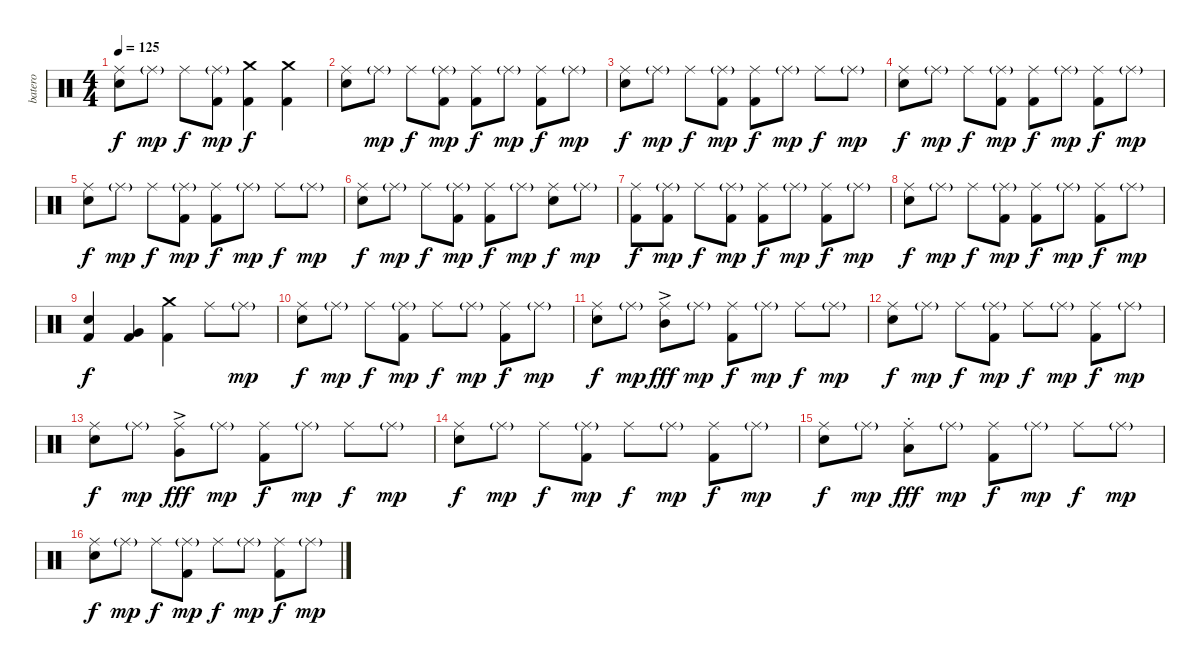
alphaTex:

\track ("batero" "batero") {instrument percussion}
\staff {score}
\articulation defaults
\ts (4 4)
\tempo 125
\clef neutral
\ks c
("Ride (middle)" "Snare (hit) 2").8{dy f} "Ride (middle)"{g}.8{dy mp} "Ride (middle)".8{dy f} ("Ride (middle)"{g} "Kick (hit) 2").8{dy mp} ("Crash medium (hit)" "Kick (hit) 2").4{dy f} ("Crash medium (hit)" "Kick (hit) 2").4 |
("Ride (middle)" "Snare (hit) 2").8 "Ride (middle)"{g}.8{dy mp} "Ride (middle)".8{dy f} ("Ride (middle)"{g} "Kick (hit) 2").8{dy mp} ("Ride (middle)" "Kick (hit) 2").8{dy f} "Ride (middle)"{g}.8{dy mp} ("Ride (middle)" "Kick (hit) 2").8{dy f} "Ride (middle)"{g}.8{dy mp} |
("Ride (middle)" "Snare (hit) 2").8{dy f} "Ride (middle)"{g}.8{dy mp} "Ride (middle)".8{dy f} ("Ride (middle)"{g} "Kick (hit) 2").8{dy mp} ("Ride (middle)" "Kick (hit) 2").8{dy f} "Ride (middle)"{g}.8{dy mp} "Ride (middle)".8{dy f} "Ride (middle)"{g}.8{dy mp} |
("Ride (middle)" "Snare (hit) 2").8{dy f} "Ride (middle)"{g}.8{dy mp} "Ride (middle)".8{dy f} ("Ride (middle)"{g} "Kick (hit) 2").8{dy mp} ("Ride (middle)" "Kick (hit) 2").8{dy f} "Ride (middle)"{g}.8{dy mp} ("Ride (middle)" "Kick (hit) 2").8{dy f} "Ride (middle)"{g}.8{dy mp} |
("Ride (middle)" "Snare (hit) 2").8{dy f} "Ride (middle)"{g}.8{dy mp} "Ride (middle)".8{dy f} ("Ride (middle)"{g} "Kick (hit) 2").8{dy mp} ("Ride (middle)" "Kick (hit) 2").8{dy f} "Ride (middle)"{g}.8{dy mp} "Ride (middle)".8{dy f} "Ride (middle)"{g}.8{dy mp} |
("Ride (middle)" "Snare (hit) 2").8{dy f} "Ride (middle)"{g}.8{dy mp} "Ride (middle)".8{dy f} ("Ride (middle)"{g} "Kick (hit) 2").8{dy mp} ("Ride (middle)" "Kick (hit) 2").8{dy f} "Ride (middle)"{g}.8{dy mp} ("Ride (middle)" "Snare (hit) 2").8{dy f} "Ride (middle)"{g}.8{dy mp} |
("Ride (middle)" "Kick (hit) 2").8{dy f} ("Ride (middle)"{g} "Kick (hit) 2").8{dy mp} "Ride (middle)".8{dy f} ("Ride (middle)"{g} "Kick (hit) 2").8{dy mp} ("Ride (middle)" "Kick (hit) 2").8{dy f} "Ride (middle)"{g}.8{dy mp} ("Ride (middle)" "Kick (hit) 2").8{dy f} "Ride (middle)"{g}.8{dy mp} |
("Ride (middle)" "Snare (hit) 2").8{dy f} "Ride (middle)"{g}.8{dy mp} "Ride (middle)".8{dy f} ("Ride (middle)"{g} "Kick (hit) 2").8{dy mp} ("Ride (middle)" "Kick (hit) 2").8{dy f} "Ride (middle)"{g}.8{dy mp} ("Ride (middle)" "Kick (hit) 2").8{dy f} "Ride (middle)"{g}.8{dy mp} |
("Snare (hit) 2" "Kick (hit) 2").4{dy f} ("Very Low Tom (hit)" "Kick (hit) 2").4 ("Crash medium (hit)" "Kick (hit) 2").4 "Ride (middle)".8 "Ride (middle)"{g}.8{dy mp} |
("Ride (middle)" "Snare (hit) 2").8{dy f} "Ride (middle)"{g}.8{dy mp} "Ride (middle)".8{dy f} ("Ride (middle)"{g} "Kick (hit) 2").8{dy mp} "Ride (middle)".8{dy f} "Ride (middle)"{g}.8{dy mp} ("Ride (middle)" "Kick (hit) 2").8{dy f} "Ride (middle)"{g}.8{dy mp} |
("Ride (middle)" "Snare (hit) 2").8{dy f} "Ride (middle)"{g}.8{dy mp} ("Ride (middle)" "Mid Tom (hit)"{ac}).8{dy fff} "Ride (middle)"{g}.8{dy mp} ("Ride (middle)" "Kick (hit) 2").8{dy f} "Ride (middle)"{g}.8{dy mp} "Ride (middle)".8{dy f} "Ride (middle)"{g}.8{dy mp} |
("Ride (middle)" "Snare (hit) 2").8{dy f} "Ride (middle)"{g}.8{dy mp} "Ride (middle)".8{dy f} ("Ride (middle)"{g} "Kick (hit) 2").8{dy mp} "Ride (middle)".8{dy f} "Ride (middle)"{g}.8{dy mp} ("Ride (middle)" "Kick (hit) 2").8{dy f} "Ride (middle)"{g}.8{dy mp} |
("Ride (middle)" "Snare (hit) 2").8{dy f} "Ride (middle)"{g}.8{dy mp} ("Ride (middle)" "Very Low Tom (hit)"{ac}).8{dy fff} "Ride (middle)"{g}.8{dy mp} ("Ride (middle)" "Kick (hit) 2").8{dy f} "Ride (middle)"{g}.8{dy mp} "Ride (middle)".8{dy f} "Ride (middle)"{g}.8{dy mp} |
("Ride (middle)" "Snare (hit) 2").8{dy f} "Ride (middle)"{g}.8{dy mp} "Ride (middle)".8{dy f} ("Ride (middle)"{g} "Kick (hit) 2").8{dy mp} "Ride (middle)".8{dy f} "Ride (middle)"{g}.8{dy mp} ("Ride (middle)" "Kick (hit) 2").8{dy f} "Ride (middle)"{g}.8{dy mp} |
("Ride (middle)" "Snare (hit) 2").8{dy f} "Ride (middle)"{g}.8{dy mp} ("Ride (middle)" "Low Tom (hit)"{st}).8{dy fff} "Ride (middle)"{g}.8{dy mp} ("Ride (middle)" "Kick (hit) 2").8{dy f} "Ride (middle)"{g}.8{dy mp} "Ride (middle)".8{dy f} "Ride (middle)"{g}.8{dy mp} |
("Ride (middle)" "Snare (hit) 2").8{dy f} "Ride (middle)"{g}.8{dy mp} "Ride (middle)".8{dy f} ("Ride (middle)"{g} "Kick (hit) 2").8{dy mp} "Ride (middle)".8{dy f} "Ride (middle)"{g}.8{dy mp} ("Ride (middle)" "Kick (hit) 2").8{dy f} "Ride (middle)"{g}.8{dy mp}
